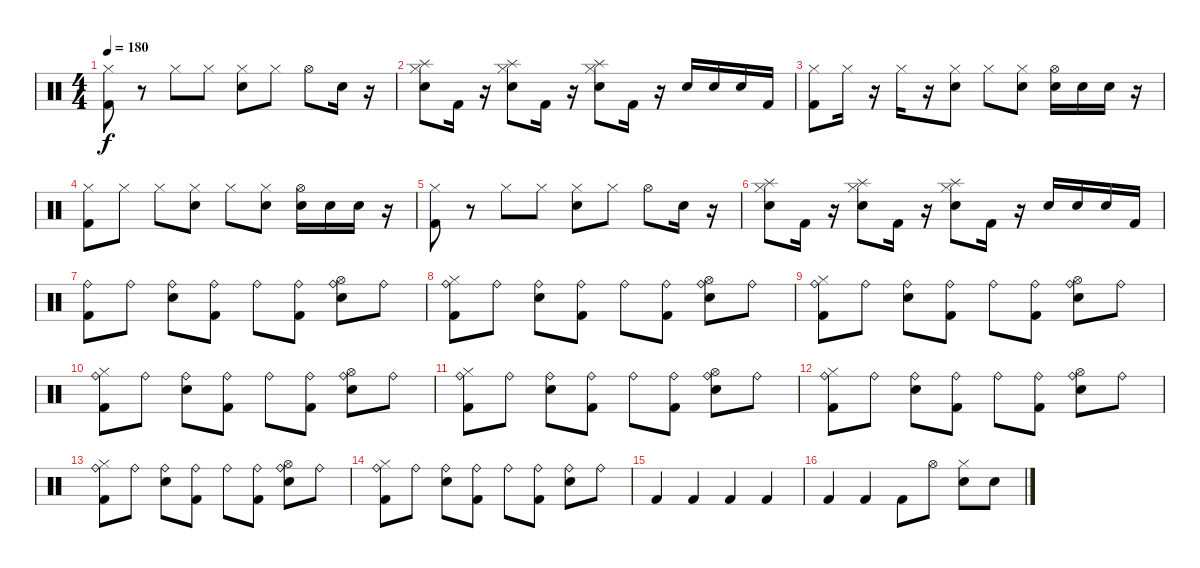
\track "" {instrument percussion}
\staff {score}
\articulation defaults
\ts (4 4)
\tempo 180
\clef neutral
\ks c
("Hi-Hat (closed)" "Kick (hit) 2").8{dy f} r.8 "Hi-Hat (closed)".8 "Hi-Hat (closed)".8 ("Hi-Hat (closed)" "Electric Snare (hit)").8 "Hi-Hat (closed)".8 "Hi-Hat (open)".8 "Electric Snare (hit)".16 r.16 |
("Hi-Hat (closed)" "Splash (hit)" "Electric Snare (hit)").8 "Kick (hit) 2".16 r.16 ("Hi-Hat (closed)" "Splash (hit)" "Electric Snare (hit)").8 "Kick (hit) 2".16 r.16 ("Hi-Hat (closed)" "Splash (hit)" "Electric Snare (hit)").8 "Kick (hit) 2".16 r.16 "Electric Snare (hit)".16 "Electric Snare (hit)".16 "Electric Snare (hit)".16 "Kick (hit) 2".16 |
("Hi-Hat (closed)" "Kick (hit) 2").8 "Hi-Hat (closed)".16 r.16 "Hi-Hat (closed)".16 r.16 ("Hi-Hat (closed)" "Electric Snare (hit)").8 "Hi-Hat (closed)".8 ("Hi-Hat (closed)" "Electric Snare (hit)").8 ("Hi-Hat (open)" "Electric Snare (hit)").16 "Electric Snare (hit)".16 "Electric Snare (hit)".16 r.16 |
("Hi-Hat (closed)" "Kick (hit) 2").8 "Hi-Hat (closed)".8 "Hi-Hat (closed)".8 ("Hi-Hat (closed)" "Electric Snare (hit)").8 "Hi-Hat (closed)".8 ("Hi-Hat (closed)" "Electric Snare (hit)").8 ("Hi-Hat (open)" "Electric Snare (hit)").16 "Electric Snare (hit)".16 "Electric Snare (hit)".16 r.16 |
("Hi-Hat (closed)" "Kick (hit) 2").8 r.8 "Hi-Hat (closed)".8 "Hi-Hat (closed)".8 ("Hi-Hat (closed)" "Electric Snare (hit)").8 "Hi-Hat (closed)".8 "Hi-Hat (open)".8 "Electric Snare (hit)".16 r.16 |
("Hi-Hat (closed)" "Splash (hit)" "Electric Snare (hit)").8 "Kick (hit) 2".16 r.16 ("Hi-Hat (closed)" "Splash (hit)" "Electric Snare (hit)").8 "Kick (hit) 2".16 r.16 ("Hi-Hat (closed)" "Splash (hit)" "Electric Snare (hit)").8 "Kick (hit) 2".16 r.16 "Electric Snare (hit)".16 "Electric Snare (hit)".16 "Electric Snare (hit)".16 "Kick (hit) 2".16 |
("Ride (bell)" "Kick (hit) 2").8 "Ride (bell)".8 ("Ride (bell)" "Electric Snare (hit)").8 ("Ride (bell)" "Kick (hit) 2").8 "Ride (bell)".8 ("Ride (bell)" "Kick (hit) 2").8 ("Ride (bell)" "Hi-Hat (open)" "Electric Snare (hit)").8 "Ride (bell)".8 |
("Ride (bell)" "Hi-Hat (closed)" "Kick (hit) 2").8 "Ride (bell)".8 ("Ride (bell)" "Electric Snare (hit)").8 ("Ride (bell)" "Kick (hit) 2").8 "Ride (bell)".8 ("Ride (bell)" "Kick (hit) 2").8 ("Ride (bell)" "Hi-Hat (open)" "Electric Snare (hit)").8 "Ride (bell)".8 |
("Ride (bell)" "Hi-Hat (closed)" "Kick (hit) 2").8 "Ride (bell)".8 ("Ride (bell)" "Electric Snare (hit)").8 ("Ride (bell)" "Kick (hit) 2").8 "Ride (bell)".8 ("Ride (bell)" "Kick (hit) 2").8 ("Ride (bell)" "Hi-Hat (open)" "Electric Snare (hit)").8 "Ride (bell)".8 |
("Ride (bell)" "Hi-Hat (closed)" "Kick (hit) 2").8 "Ride (bell)".8 ("Ride (bell)" "Electric Snare (hit)").8 ("Ride (bell)" "Kick (hit) 2").8 "Ride (bell)".8 ("Ride (bell)" "Kick (hit) 2").8 ("Ride (bell)" "Hi-Hat (open)" "Electric Snare (hit)").8 "Ride (bell)".8 |
("Hi-Hat (closed)" "Ride (bell)" "Kick (hit) 2").8 "Ride (bell)".8 ("Ride (bell)" "Electric Snare (hit)").8 ("Ride (bell)" "Kick (hit) 2").8 "Ride (bell)".8 ("Ride (bell)" "Kick (hit) 2").8 ("Ride (bell)" "Hi-Hat (open)" "Electric Snare (hit)").8 "Ride (bell)".8 |
("Ride (bell)" "Hi-Hat (closed)" "Kick (hit) 2").8 "Ride (bell)".8 ("Ride (bell)" "Electric Snare (hit)").8 ("Ride (bell)" "Kick (hit) 2").8 "Ride (bell)".8 ("Ride (bell)" "Kick (hit) 2").8 ("Ride (bell)" "Hi-Hat (open)" "Electric Snare (hit)").8 "Ride (bell)".8 |
("Ride (bell)" "Hi-Hat (closed)" "Kick (hit) 2").8 "Ride (bell)".8 ("Ride (bell)" "Electric Snare (hit)").8 ("Ride (bell)" "Kick (hit) 2").8 "Ride (bell)".8 ("Ride (bell)" "Kick (hit) 2").8 ("Ride (bell)" "Hi-Hat (open)" "Electric Snare (hit)").8 "Ride (bell)".8 |
("Ride (bell)" "Hi-Hat (closed)" "Kick (hit) 2").8 "Ride (bell)".8 ("Ride (bell)" "Electric Snare (hit)").8 ("Ride (bell)" "Kick (hit) 2").8 "Ride (bell)".8 ("Ride (bell)" "Kick (hit) 2").8 ("Ride (bell)" "Electric Snare (hit)").8 "Ride (bell)".8 |
"Kick (hit) 2".4 "Kick (hit) 2".4 "Kick (hit) 2".4 "Kick (hit) 2".4 |
"Kick (hit) 2".4 "Kick (hit) 2".4 "Kick (hit) 2".8 "Hi-Hat (open)".8 ("Hi-Hat (closed)" "Electric Snare (hit)").8 "Electric Snare (hit)".8
